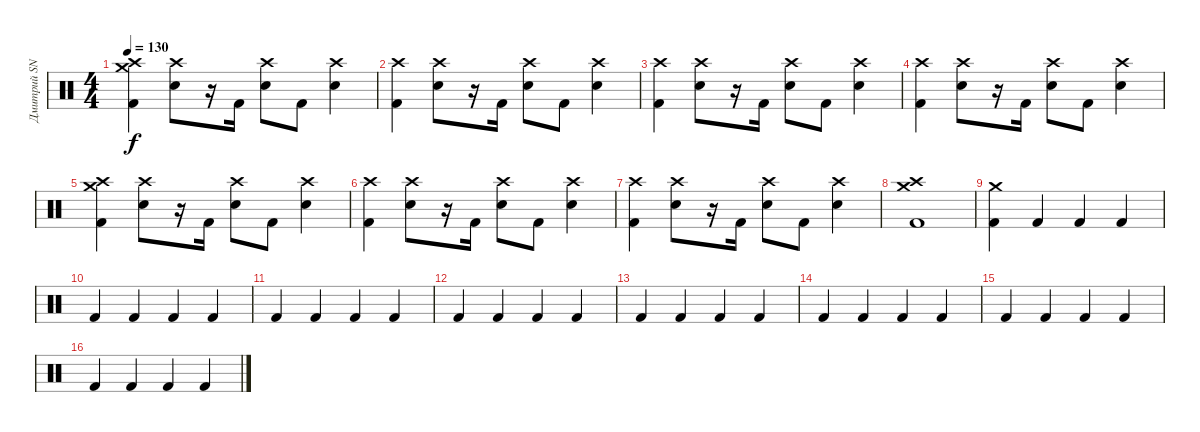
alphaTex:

\track ("Дмитрий SNAKE Хакимов" "Дмитрий SN") {instrument percussion}
\staff {score}
\articulation defaults
\ts (4 4)
\tempo 130
\clef neutral
\ks c
("Crash high (hit)" "Crash medium (hit)" "Kick (hit) 2").4{dy f} ("Crash high (hit)" "Snare (hit) 2").8 r.16 "Kick (hit) 2".16 ("Crash high (hit)" "Snare (hit) 2").8 "Kick (hit) 2".8 ("Crash high (hit)" "Snare (hit) 2").4 |
("Crash high (hit)" "Kick (hit) 2").4 ("Crash high (hit)" "Snare (hit) 2").8 r.16 "Kick (hit) 2".16 ("Crash high (hit)" "Snare (hit) 2").8 "Kick (hit) 2".8 ("Crash high (hit)" "Snare (hit) 2").4 |
("Crash high (hit)" "Kick (hit) 2").4 ("Crash high (hit)" "Snare (hit) 2").8 r.16 "Kick (hit) 2".16 ("Crash high (hit)" "Snare (hit) 2").8 "Kick (hit) 2".8 ("Crash high (hit)" "Snare (hit) 2").4 |
("Crash high (hit)" "Kick (hit) 2").4 ("Crash high (hit)" "Snare (hit) 2").8 r.16 "Kick (hit) 2".16 ("Crash high (hit)" "Snare (hit) 2").8 "Kick (hit) 2".8 ("Crash high (hit)" "Snare (hit) 2").4 |
("Crash high (hit)" "Crash medium (hit)" "Kick (hit) 2").4 ("Crash high (hit)" "Snare (hit) 2").8 r.16 "Kick (hit) 2".16 ("Crash high (hit)" "Snare (hit) 2").8 "Kick (hit) 2".8 ("Crash high (hit)" "Snare (hit) 2").4 |
("Crash high (hit)" "Kick (hit) 2").4 ("Crash high (hit)" "Snare (hit) 2").8 r.16 "Kick (hit) 2".16 ("Crash high (hit)" "Snare (hit) 2").8 "Kick (hit) 2".8 ("Crash high (hit)" "Snare (hit) 2").4 |
("Crash high (hit)" "Kick (hit) 2").4 ("Crash high (hit)" "Snare (hit) 2").8 r.16 "Kick (hit) 2".16 ("Crash high (hit)" "Snare (hit) 2").8 "Kick (hit) 2".8 ("Crash high (hit)" "Snare (hit) 2").4 |
("Crash high (hit)" "Crash medium (hit)" "Kick (hit) 2").1 |
("Crash medium (hit)" "Kick (hit) 2").4 "Kick (hit) 2".4 "Kick (hit) 2".4 "Kick (hit) 2".4 |
"Kick (hit) 2".4 "Kick (hit) 2".4 "Kick (hit) 2".4 "Kick (hit) 2".4 |
"Kick (hit) 2".4 "Kick (hit) 2".4 "Kick (hit) 2".4 "Kick (hit) 2".4 |
"Kick (hit) 2".4 "Kick (hit) 2".4 "Kick (hit) 2".4 "Kick (hit) 2".4 |
"Kick (hit) 2".4 "Kick (hit) 2".4 "Kick (hit) 2".4 "Kick (hit) 2".4 |
"Kick (hit) 2".4 "Kick (hit) 2".4 "Kick (hit) 2".4 "Kick (hit) 2".4 |
"Kick (hit) 2".4 "Kick (hit) 2".4 "Kick (hit) 2".4 "Kick (hit) 2".4 |
"Kick (hit) 2".4 "Kick (hit) 2".4 "Kick (hit) 2".4 "Kick (hit) 2".4
